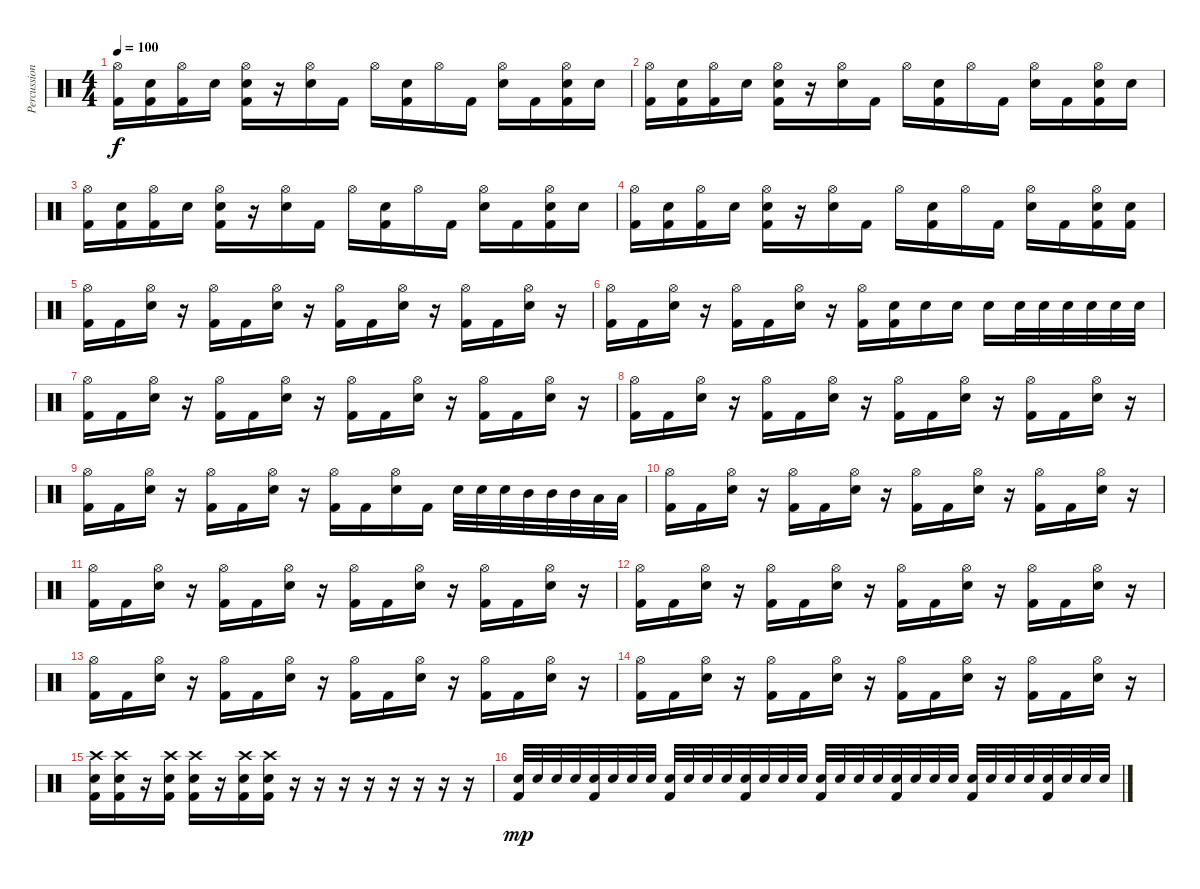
\track ("Percussions" "Percussion") {instrument percussion}
\staff {score}
\articulation defaults
\ts (4 4)
\tempo 100
\clef neutral
\ks c
("Hi-Hat (open)" "Kick (hit) 2").16{dy f} ("Electric Snare (hit)" "Kick (hit) 2").16 ("Hi-Hat (open)" "Kick (hit) 2").16 "Electric Snare (hit)".16 ("Hi-Hat (open)" "Electric Snare (hit)" "Kick (hit) 2").16 r.16 ("Hi-Hat (open)" "Electric Snare (hit)").16 "Kick (hit) 2".16 "Hi-Hat (open)".16 ("Electric Snare (hit)" "Kick (hit) 2").16 "Hi-Hat (open)".16 "Kick (hit) 2".16 ("Hi-Hat (open)" "Electric Snare (hit)").16 "Kick (hit) 2".16 ("Hi-Hat (open)" "Electric Snare (hit)" "Kick (hit) 2").16 "Electric Snare (hit)".16 |
("Hi-Hat (open)" "Kick (hit) 2").16 ("Electric Snare (hit)" "Kick (hit) 2").16 ("Hi-Hat (open)" "Kick (hit) 2").16 "Electric Snare (hit)".16 ("Hi-Hat (open)" "Electric Snare (hit)" "Kick (hit) 2").16 r.16 ("Hi-Hat (open)" "Electric Snare (hit)").16 "Kick (hit) 2".16 "Hi-Hat (open)".16 ("Electric Snare (hit)" "Kick (hit) 2").16 "Hi-Hat (open)".16 "Kick (hit) 2".16 ("Hi-Hat (open)" "Electric Snare (hit)").16 "Kick (hit) 2".16 ("Hi-Hat (open)" "Electric Snare (hit)" "Kick (hit) 2").16 "Electric Snare (hit)".16 |
("Hi-Hat (open)" "Kick (hit) 2").16 ("Electric Snare (hit)" "Kick (hit) 2").16 ("Hi-Hat (open)" "Kick (hit) 2").16 "Electric Snare (hit)".16 ("Hi-Hat (open)" "Electric Snare (hit)" "Kick (hit) 2").16 r.16 ("Hi-Hat (open)" "Electric Snare (hit)").16 "Kick (hit) 2".16 "Hi-Hat (open)".16 ("Electric Snare (hit)" "Kick (hit) 2").16 "Hi-Hat (open)".16 "Kick (hit) 2".16 ("Hi-Hat (open)" "Electric Snare (hit)").16 "Kick (hit) 2".16 ("Hi-Hat (open)" "Electric Snare (hit)" "Kick (hit) 2").16 "Electric Snare (hit)".16 |
("Hi-Hat (open)" "Kick (hit) 2").16 ("Electric Snare (hit)" "Kick (hit) 2").16 ("Hi-Hat (open)" "Kick (hit) 2").16 "Electric Snare (hit)".16 ("Hi-Hat (open)" "Electric Snare (hit)" "Kick (hit) 2").16 r.16 ("Hi-Hat (open)" "Electric Snare (hit)").16 "Kick (hit) 2".16 "Hi-Hat (open)".16 ("Electric Snare (hit)" "Kick (hit) 2").16 "Hi-Hat (open)".16 "Kick (hit) 2".16 ("Hi-Hat (open)" "Electric Snare (hit)").16 "Kick (hit) 2".16 ("Hi-Hat (open)" "Electric Snare (hit)" "Kick (hit) 2").16 ("Electric Snare (hit)" "Kick (hit) 2").16 |
("Hi-Hat (open)" "Kick (hit) 2").16 "Kick (hit) 2".16 ("Hi-Hat (open)" "Electric Snare (hit)").16 r.16 ("Hi-Hat (open)" "Kick (hit) 2").16 "Kick (hit) 2".16 ("Hi-Hat (open)" "Electric Snare (hit)").16 r.16 ("Hi-Hat (open)" "Kick (hit) 2").16 "Kick (hit) 2".16 ("Hi-Hat (open)" "Electric Snare (hit)").16 r.16 ("Hi-Hat (open)" "Kick (hit) 2").16 "Kick (hit) 2".16 ("Hi-Hat (open)" "Electric Snare (hit)").16 r.16 |
("Hi-Hat (open)" "Kick (hit) 2").16 "Kick (hit) 2".16 ("Hi-Hat (open)" "Electric Snare (hit)").16 r.16 ("Hi-Hat (open)" "Kick (hit) 2").16 "Kick (hit) 2".16 ("Hi-Hat (open)" "Electric Snare (hit)").16 r.16 ("Hi-Hat (open)" "Kick (hit) 2").16 ("Electric Snare (hit)" "Kick (hit) 2").16 "Electric Snare (hit)".16 "Electric Snare (hit)".16 "Electric Snare (hit)".16 "Electric Snare (hit)".32 "Electric Snare (hit)".32 "Electric Snare (hit)".32 "Electric Snare (hit)".32 "Electric Snare (hit)".32 "Electric Snare (hit)".32 |
("Hi-Hat (open)" "Kick (hit) 2").16 "Kick (hit) 2".16 ("Hi-Hat (open)" "Electric Snare (hit)").16 r.16 ("Hi-Hat (open)" "Kick (hit) 2").16 "Kick (hit) 2".16 ("Hi-Hat (open)" "Electric Snare (hit)").16 r.16 ("Hi-Hat (open)" "Kick (hit) 2").16 "Kick (hit) 2".16 ("Hi-Hat (open)" "Electric Snare (hit)").16 r.16 ("Hi-Hat (open)" "Kick (hit) 2").16 "Kick (hit) 2".16 ("Hi-Hat (open)" "Electric Snare (hit)").16 r.16 |
("Hi-Hat (open)" "Kick (hit) 2").16 "Kick (hit) 2".16 ("Hi-Hat (open)" "Electric Snare (hit)").16 r.16 ("Hi-Hat (open)" "Kick (hit) 2").16 "Kick (hit) 2".16 ("Hi-Hat (open)" "Electric Snare (hit)").16 r.16 ("Hi-Hat (open)" "Kick (hit) 2").16 "Kick (hit) 2".16 ("Hi-Hat (open)" "Electric Snare (hit)").16 r.16 ("Hi-Hat (open)" "Kick (hit) 2").16 "Kick (hit) 2".16 ("Hi-Hat (open)" "Electric Snare (hit)").16 r.16 |
("Hi-Hat (open)" "Kick (hit) 2").16 "Kick (hit) 2".16 ("Hi-Hat (open)" "Electric Snare (hit)").16 r.16 ("Hi-Hat (open)" "Kick (hit) 2").16 "Kick (hit) 2".16 ("Hi-Hat (open)" "Electric Snare (hit)").16 r.16 ("Hi-Hat (open)" "Kick (hit) 2").16 "Kick (hit) 2".16 ("Hi-Hat (open)" "Electric Snare (hit)").16 "Kick (hit) 2".16 "Electric Snare (hit)".32 "Electric Snare (hit)".32 "Electric Snare (hit)".32 "Mid Tom (hit)".32 "Mid Tom (hit)".32 "Mid Tom (hit)".32 "Low Tom (hit)".32 "Low Tom (hit)".32 |
("Hi-Hat (open)" "Kick (hit) 2").16 "Kick (hit) 2".16 ("Hi-Hat (open)" "Electric Snare (hit)").16 r.16 ("Hi-Hat (open)" "Kick (hit) 2").16 "Kick (hit) 2".16 ("Hi-Hat (open)" "Electric Snare (hit)").16 r.16 ("Hi-Hat (open)" "Kick (hit) 2").16 "Kick (hit) 2".16 ("Hi-Hat (open)" "Electric Snare (hit)").16 r.16 ("Hi-Hat (open)" "Kick (hit) 2").16 "Kick (hit) 2".16 ("Hi-Hat (open)" "Electric Snare (hit)").16 r.16 |
("Hi-Hat (open)" "Kick (hit) 2").16 "Kick (hit) 2".16 ("Hi-Hat (open)" "Electric Snare (hit)").16 r.16 ("Hi-Hat (open)" "Kick (hit) 2").16 "Kick (hit) 2".16 ("Hi-Hat (open)" "Electric Snare (hit)").16 r.16 ("Hi-Hat (open)" "Kick (hit) 2").16 "Kick (hit) 2".16 ("Hi-Hat (open)" "Electric Snare (hit)").16 r.16 ("Hi-Hat (open)" "Kick (hit) 2").16 "Kick (hit) 2".16 ("Hi-Hat (open)" "Electric Snare (hit)").16 r.16 |
("Hi-Hat (open)" "Kick (hit) 2").16 "Kick (hit) 2".16 ("Hi-Hat (open)" "Electric Snare (hit)").16 r.16 ("Hi-Hat (open)" "Kick (hit) 2").16 "Kick (hit) 2".16 ("Hi-Hat (open)" "Electric Snare (hit)").16 r.16 ("Hi-Hat (open)" "Kick (hit) 2").16 "Kick (hit) 2".16 ("Hi-Hat (open)" "Electric Snare (hit)").16 r.16 ("Hi-Hat (open)" "Kick (hit) 2").16 "Kick (hit) 2".16 ("Hi-Hat (open)" "Electric Snare (hit)").16 r.16 |
("Hi-Hat (open)" "Kick (hit) 2").16 "Kick (hit) 2".16 ("Hi-Hat (open)" "Electric Snare (hit)").16 r.16 ("Hi-Hat (open)" "Kick (hit) 2").16 "Kick (hit) 2".16 ("Hi-Hat (open)" "Electric Snare (hit)").16 r.16 ("Hi-Hat (open)" "Kick (hit) 2").16 "Kick (hit) 2".16 ("Hi-Hat (open)" "Electric Snare (hit)").16 r.16 ("Hi-Hat (open)" "Kick (hit) 2").16 "Kick (hit) 2".16 ("Hi-Hat (open)" "Electric Snare (hit)").16 r.16 |
("Hi-Hat (open)" "Kick (hit) 2").16 "Kick (hit) 2".16 ("Hi-Hat (open)" "Electric Snare (hit)").16 r.16 ("Hi-Hat (open)" "Kick (hit) 2").16 "Kick (hit) 2".16 ("Hi-Hat (open)" "Electric Snare (hit)").16 r.16 ("Hi-Hat (open)" "Kick (hit) 2").16 "Kick (hit) 2".16 ("Hi-Hat (open)" "Electric Snare (hit)").16 r.16 ("Hi-Hat (open)" "Kick (hit) 2").16 "Kick (hit) 2".16 ("Hi-Hat (open)" "Electric Snare (hit)").16 r.16 |
("Crash high (hit)" "Electric Snare (hit)" "Kick (hit) 2").16 ("Crash high (hit)" "Electric Snare (hit)" "Kick (hit) 2").16 r.16 ("Crash high (hit)" "Electric Snare (hit)" "Kick (hit) 2").16 ("Crash high (hit)" "Electric Snare (hit)" "Kick (hit) 2").16 r.16 ("Crash high (hit)" "Electric Snare (hit)" "Kick (hit) 2").16 ("Crash high (hit)" "Electric Snare (hit)" "Kick (hit) 2").16 r.16 r.16 r.16 r.16 r.16 r.16 r.16 r.16 |
("Electric Snare (hit)" "Kick (hit) 2").32{dy mp} "Electric Snare (hit)".32 "Electric Snare (hit)".32 "Electric Snare (hit)".32 ("Electric Snare (hit)" "Kick (hit) 2").32 "Electric Snare (hit)".32 "Electric Snare (hit)".32 "Electric Snare (hit)".32 ("Electric Snare (hit)" "Kick (hit) 2").32 "Electric Snare (hit)".32 "Electric Snare (hit)".32 "Electric Snare (hit)".32 ("Electric Snare (hit)" "Kick (hit) 2").32 "Electric Snare (hit)".32 "Electric Snare (hit)".32 "Electric Snare (hit)".32 ("Electric Snare (hit)" "Kick (hit) 2").32 "Electric Snare (hit)".32 "Electric Snare (hit)".32 "Electric Snare (hit)".32 ("Electric Snare (hit)" "Kick (hit) 2").32 "Electric Snare (hit)".32 "Electric Snare (hit)".32 "Electric Snare (hit)".32 ("Electric Snare (hit)" "Kick (hit) 2").32 "Electric Snare (hit)".32 "Electric Snare (hit)".32 "Electric Snare (hit)".32 ("Electric Snare (hit)" "Kick (hit) 2").32 "Electric Snare (hit)".32 "Electric Snare (hit)".32 "Electric Snare (hit)".32
